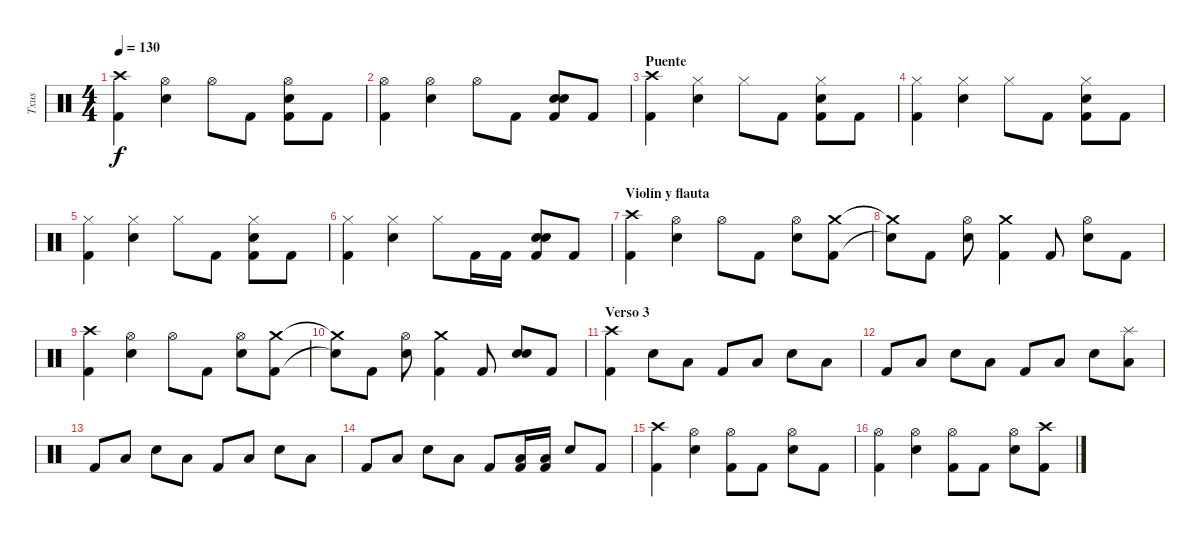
\track ("Txus" "Txus") {instrument percussion}
\staff {score}
\articulation defaults
\ts (4 4)
\tempo 130
\clef neutral
\ks c
("Kick (hit) 2" "Crash high (hit)").4{dy f} ("Electric Snare (hit)" "Hi-Hat (open)").4 "Hi-Hat (open)".8 "Kick (hit) 2".8 ("Kick (hit) 2" "Electric Snare (hit)" "Hi-Hat (open)").8 "Kick (hit) 2".8 |
("Kick (hit) 2" "Hi-Hat (open)").4 ("Electric Snare (hit)" "Hi-Hat (open)").4 "Hi-Hat (open)".8 "Kick (hit) 2".8 ("Kick (hit) 2" "Electric Snare (hit)" "Snare (hit) 2").8 "Kick (hit) 2".8 |
\section ("" "Puente")
("Kick (hit) 2" "Crash high (hit)").4 ("Electric Snare (hit)" "Hi-Hat (closed)").4 "Hi-Hat (closed)".8 "Kick (hit) 2".8 ("Kick (hit) 2" "Electric Snare (hit)" "Hi-Hat (closed)").8 "Kick (hit) 2".8 |
("Kick (hit) 2" "Hi-Hat (closed)").4 ("Electric Snare (hit)" "Hi-Hat (closed)").4 "Hi-Hat (closed)".8 "Kick (hit) 2".8 ("Kick (hit) 2" "Electric Snare (hit)" "Hi-Hat (closed)").8 "Kick (hit) 2".8 |
("Kick (hit) 2" "Hi-Hat (closed)").4 ("Electric Snare (hit)" "Hi-Hat (closed)").4 "Hi-Hat (closed)".8 "Kick (hit) 2".8 ("Kick (hit) 2" "Electric Snare (hit)" "Hi-Hat (closed)").8 "Kick (hit) 2".8 |
("Kick (hit) 2" "Hi-Hat (closed)").4 ("Electric Snare (hit)" "Hi-Hat (closed)").4 "Hi-Hat (closed)".8 "Kick (hit) 2".16 "Kick (hit) 2".16 ("Kick (hit) 2" "Electric Snare (hit)" "Snare (hit) 2").8 "Kick (hit) 2".8 |
\section ("" "Violín y flauta")
("Kick (hit) 2" "Crash high (hit)").4 ("Electric Snare (hit)" "Hi-Hat (open)").4 "Hi-Hat (open)".8 "Kick (hit) 2".8 ("Electric Snare (hit)" "Hi-Hat (open)").8 ("Kick (hit) 2" "Crash medium (hit)").8 |
("Snare (hit)"{t} "Crash medium (hit)"{t}).8 "Kick (hit) 2".8 ("Electric Snare (hit)" "Hi-Hat (open)").8 ("Kick (hit) 2" "Crash medium (hit)").4 "Kick (hit) 2".8 ("Electric Snare (hit)" "Hi-Hat (open)").8 "Kick (hit) 2".8 |
("Kick (hit) 2" "Crash high (hit)").4 ("Electric Snare (hit)" "Hi-Hat (open)").4 "Hi-Hat (open)".8 "Kick (hit) 2".8 ("Electric Snare (hit)" "Hi-Hat (open)").8 ("Kick (hit) 2" "Crash medium (hit)").8 |
("Snare (hit)"{t} "Crash medium (hit)"{t}).8 "Kick (hit) 2".8 ("Electric Snare (hit)" "Hi-Hat (open)").8 ("Kick (hit) 2" "Crash medium (hit)").4 "Kick (hit) 2".8 ("Electric Snare (hit)" "Snare (hit) 2").8 "Kick (hit) 2".8 |
\section ("" "Verso 3")
("Kick (hit) 2" "Crash high (hit)").4 "Electric Snare (hit)".8 "Low Tom (hit)".8 "Kick (hit) 2".8 "Low Tom (hit)".8 "Electric Snare (hit)".8 "Low Tom (hit)".8 |
"Kick (hit) 2".8 "Low Tom (hit)".8 "Electric Snare (hit)".8 "Low Tom (hit)".8 "Kick (hit) 2".8 "Low Tom (hit)".8 "Electric Snare (hit)".8 ("Low Tom (hit)" "Splash (hit)").8 |
"Kick (hit) 2".8 "Low Tom (hit)".8 "Electric Snare (hit)".8 "Low Tom (hit)".8 "Kick (hit) 2".8 "Low Tom (hit)".8 "Electric Snare (hit)".8 "Low Tom (hit)".8 |
"Kick (hit) 2".8 "Low Tom (hit)".8 "Electric Snare (hit)".8 "Low Tom (hit)".8 "Kick (hit) 2".8 ("Kick (hit) 2" "Low Tom (hit)").16 ("Kick (hit) 2" "Low Tom (hit)").16 "Electric Snare (hit)".8 "Kick (hit) 2".8 |
("Kick (hit) 2" "Crash high (hit)").4 ("Electric Snare (hit)" "Hi-Hat (open)").4 ("Kick (hit) 2" "Hi-Hat (open)").8 "Kick (hit) 2".8 ("Electric Snare (hit)" "Hi-Hat (open)").8 "Kick (hit) 2".8 |
("Kick (hit) 2" "Hi-Hat (open)").4 ("Electric Snare (hit)" "Hi-Hat (open)").4 ("Kick (hit) 2" "Hi-Hat (open)").8 "Kick (hit) 2".8 ("Electric Snare (hit)" "Hi-Hat (open)").8 ("Kick (hit) 2" "Crash high (hit)").8
